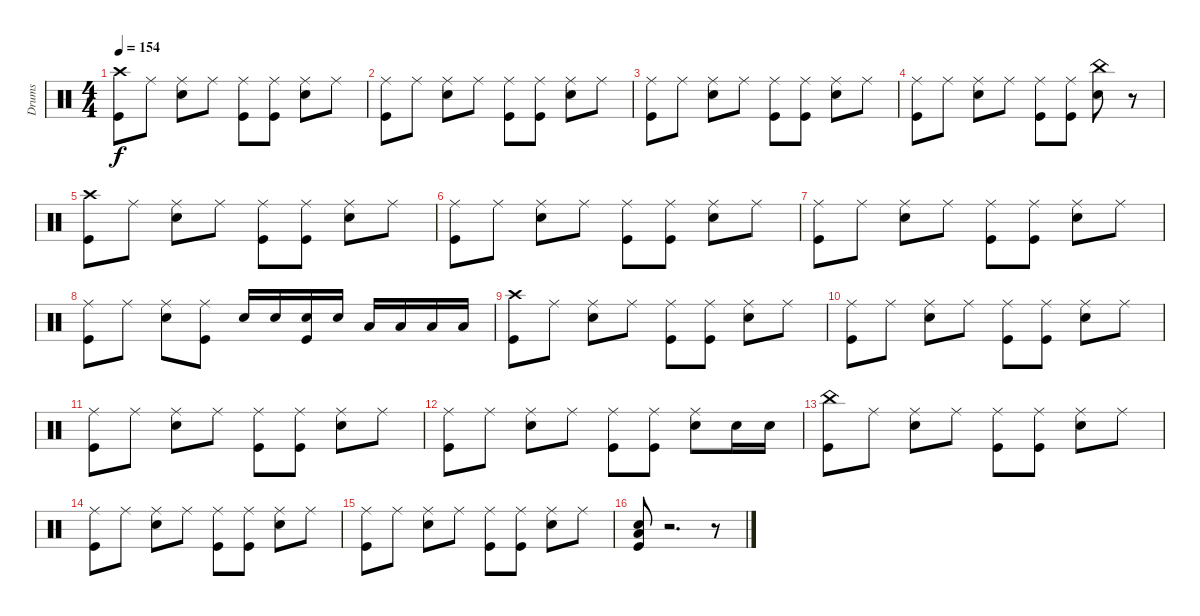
\track ("Drums" "Drums") {instrument percussion}
\staff {score}
\articulation defaults
\ts (4 4)
\tempo 154
\clef neutral
\ks c
("Crash high (hit)" "Kick (hit)").8{dy f} "Ride (middle)".8 ("Ride (middle)" "Snare (hit) 2").8 "Ride (middle)".8 ("Ride (middle)" "Kick (hit)").8 ("Kick (hit)" "Ride (middle)").8 ("Ride (middle)" "Snare (hit) 2").8 "Ride (middle)".8 |
("Ride (middle)" "Kick (hit)").8 "Ride (middle)".8 ("Ride (middle)" "Snare (hit) 2").8 "Ride (middle)".8 ("Ride (middle)" "Kick (hit)").8 ("Kick (hit)" "Ride (middle)").8 ("Ride (middle)" "Snare (hit) 2").8 "Ride (middle)".8 |
("Ride (middle)" "Kick (hit)").8 "Ride (middle)".8 ("Ride (middle)" "Snare (hit) 2").8 "Ride (middle)".8 ("Ride (middle)" "Kick (hit)").8 ("Kick (hit)" "Ride (middle)").8 ("Ride (middle)" "Snare (hit) 2").8 "Ride (middle)".8 |
("Ride (middle)" "Kick (hit)").8 "Ride (middle)".8 ("Ride (middle)" "Snare (hit) 2").8 "Ride (middle)".8 ("Ride (middle)" "Kick (hit)").8 ("Ride (middle)" "Kick (hit)").8 ("China (hit)" "Snare (hit) 2").8 r.8 |
("Kick (hit)" "Crash high (hit)").8 "Ride (middle)".8 ("Ride (middle)" "Snare (hit) 2").8 "Ride (middle)".8 ("Ride (middle)" "Kick (hit)").8 ("Kick (hit)" "Ride (middle)").8 ("Ride (middle)" "Snare (hit) 2").8 "Ride (middle)".8 |
("Ride (middle)" "Kick (hit)").8 "Ride (middle)".8 ("Ride (middle)" "Snare (hit) 2").8 "Ride (middle)".8 ("Ride (middle)" "Kick (hit)").8 ("Kick (hit)" "Ride (middle)").8 ("Ride (middle)" "Snare (hit) 2").8 "Ride (middle)".8 |
("Ride (middle)" "Kick (hit)").8 "Ride (middle)".8 ("Ride (middle)" "Snare (hit) 2").8 "Ride (middle)".8 ("Ride (middle)" "Kick (hit)").8 ("Kick (hit)" "Ride (middle)").8 ("Ride (middle)" "Snare (hit) 2").8 "Ride (middle)".8 |
("Ride (middle)" "Kick (hit)").8 "Ride (middle)".8 ("Ride (middle)" "Snare (hit) 2").8 ("Kick (hit)" "Ride (middle)").8 "Snare (hit) 2".16 "Snare (hit) 2".16 ("Kick (hit)" "Snare (hit) 2").16 "Snare (hit) 2".16 "Low Tom (hit)".16 "Low Tom (hit)".16 "Low Tom (hit)".16 "Low Tom (hit)".16 |
("Crash high (hit)" "Kick (hit)").8 "Ride (middle)".8 ("Ride (middle)" "Snare (hit) 2").8 "Ride (middle)".8 ("Ride (middle)" "Kick (hit)").8 ("Ride (middle)" "Kick (hit)").8 ("Ride (middle)" "Snare (hit) 2").8 "Ride (middle)".8 |
("Ride (middle)" "Kick (hit)").8 "Ride (middle)".8 ("Ride (middle)" "Snare (hit) 2").8 "Ride (middle)".8 ("Ride (middle)" "Kick (hit)").8 ("Ride (middle)" "Kick (hit)").8 ("Ride (middle)" "Snare (hit) 2").8 "Ride (middle)".8 |
("Ride (middle)" "Kick (hit)").8 "Ride (middle)".8 ("Ride (middle)" "Snare (hit) 2").8 "Ride (middle)".8 ("Ride (middle)" "Kick (hit)").8 ("Kick (hit)" "Ride (middle)").8 ("Ride (middle)" "Snare (hit) 2").8 "Ride (middle)".8 |
("Ride (middle)" "Kick (hit)").8 "Ride (middle)".8 ("Ride (middle)" "Snare (hit) 2").8 "Ride (middle)".8 ("Ride (middle)" "Kick (hit)").8 ("Kick (hit)" "Ride (middle)").8 ("Ride (middle)" "Snare (hit) 2").8 "Snare (hit) 2".16 "Snare (hit) 2".16 |
("China (hit)" "Kick (hit)").8 "Ride (middle)".8 ("Ride (middle)" "Snare (hit) 2").8 "Ride (middle)".8 ("Ride (middle)" "Kick (hit)").8 ("Ride (middle)" "Kick (hit)").8 ("Ride (middle)" "Snare (hit) 2").8 "Ride (middle)".8 |
("Ride (middle)" "Kick (hit)").8 "Ride (middle)".8 ("Ride (middle)" "Snare (hit) 2").8 "Ride (middle)".8 ("Ride (middle)" "Kick (hit)").8 ("Ride (middle)" "Kick (hit)").8 ("Ride (middle)" "Snare (hit) 2").8 "Ride (middle)".8 |
("Ride (middle)" "Kick (hit)").8 "Ride (middle)".8 ("Ride (middle)" "Snare (hit) 2").8 "Ride (middle)".8 ("Ride (middle)" "Kick (hit)").8 ("Ride (middle)" "Kick (hit)").8 ("Ride (middle)" "Snare (hit) 2").8 "Ride (middle)".8 |
("Low Floor Tom (hit)" "Kick (hit)" "Snare (hit) 2").8 r.2{d} r.8
